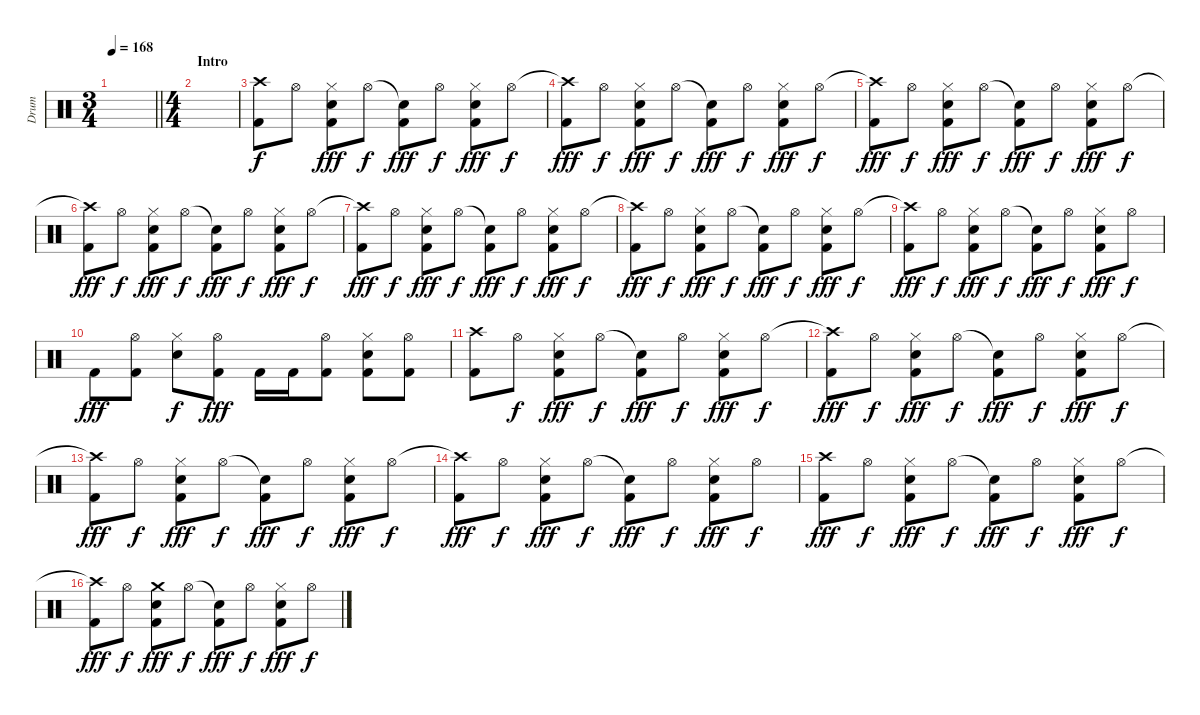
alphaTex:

\track ("Drum" "Drum") {instrument percussion}
\staff {score}
\articulation defaults
\ts (3 4)
\tempo 168
\clef neutral
\barLineRight lightlight
\ks c
|
\ts (4 4)
\section ("" "Intro")
|
("Crash high (hit)" "Kick (hit) 2").8 "Hi-Hat (open)".8{dy f} ("Hi-Hat (closed)" "Snare (hit) 2" "Kick (hit) 2").8{dy fff} "Hi-Hat (open)".8{dy f} ("Snare (hit)"{t} "Kick (hit) 2").8{dy fff} "Hi-Hat (open)".8{dy f} ("Hi-Hat (closed)" "Snare (hit) 2" "Kick (hit) 2").8{dy fff} "Hi-Hat (open)".8{dy f} |
("Crash high (hit)"{t} "Kick (hit) 2").8{dy fff} "Hi-Hat (open)".8{dy f} ("Hi-Hat (closed)" "Snare (hit) 2" "Kick (hit) 2").8{dy fff} "Hi-Hat (open)".8{dy f} ("Snare (hit)"{t} "Kick (hit) 2").8{dy fff} "Hi-Hat (open)".8{dy f} ("Hi-Hat (closed)" "Snare (hit) 2" "Kick (hit) 2").8{dy fff} "Hi-Hat (open)".8{dy f} |
("Crash high (hit)"{t} "Kick (hit) 2").8{dy fff} "Hi-Hat (open)".8{dy f} ("Hi-Hat (closed)" "Snare (hit) 2" "Kick (hit) 2").8{dy fff} "Hi-Hat (open)".8{dy f} ("Snare (hit)"{t} "Kick (hit) 2").8{dy fff} "Hi-Hat (open)".8{dy f} ("Hi-Hat (closed)" "Snare (hit) 2" "Kick (hit) 2").8{dy fff} "Hi-Hat (open)".8{dy f} |
("Crash high (hit)"{t} "Kick (hit) 2").8{dy fff} "Hi-Hat (open)".8{dy f} ("Hi-Hat (closed)" "Snare (hit) 2" "Kick (hit) 2").8{dy fff} "Hi-Hat (open)".8{dy f} ("Snare (hit)"{t} "Kick (hit) 2").8{dy fff} "Hi-Hat (open)".8{dy f} ("Hi-Hat (closed)" "Snare (hit) 2" "Kick (hit) 2").8{dy fff} "Hi-Hat (open)".8{dy f} |
("Crash high (hit)"{t} "Kick (hit) 2").8{dy fff} "Hi-Hat (open)".8{dy f} ("Hi-Hat (closed)" "Snare (hit) 2" "Kick (hit) 2").8{dy fff} "Hi-Hat (open)".8{dy f} ("Snare (hit)"{t} "Kick (hit) 2").8{dy fff} "Hi-Hat (open)".8{dy f} ("Hi-Hat (closed)" "Snare (hit) 2" "Kick (hit) 2").8{dy fff} "Hi-Hat (open)".8{dy f} |
("Crash high (hit)"{t} "Kick (hit) 2").8{dy fff} "Hi-Hat (open)".8{dy f} ("Hi-Hat (closed)" "Snare (hit) 2" "Kick (hit) 2").8{dy fff} "Hi-Hat (open)".8{dy f} ("Snare (hit)"{t} "Kick (hit) 2").8{dy fff} "Hi-Hat (open)".8{dy f} ("Hi-Hat (closed)" "Snare (hit) 2" "Kick (hit) 2").8{dy fff} "Hi-Hat (open)".8{dy f} |
("Crash high (hit)"{t} "Kick (hit) 2").8{dy fff} "Hi-Hat (open)".8{dy f} ("Hi-Hat (closed)" "Snare (hit) 2" "Kick (hit) 2").8{dy fff} "Hi-Hat (open)".8{dy f} ("Snare (hit)"{t} "Kick (hit) 2").8{dy fff} "Hi-Hat (open)".8{dy f} ("Hi-Hat (closed)" "Snare (hit) 2" "Kick (hit) 2").8{dy fff} "Hi-Hat (open)".8{dy f} |
"Kick (hit) 2".8{dy fff} ("Hi-Hat (open)" "Kick (hit) 2").8 ("Hi-Hat (closed)" "Snare (hit) 2").8{dy f} ("Hi-Hat (open)" "Kick (hit) 2").8{dy fff} "Kick (hit) 2".16 "Kick (hit) 2".16 ("Hi-Hat (open)" "Kick (hit) 2").8 ("Hi-Hat (closed)" "Snare (hit) 2" "Kick (hit) 2").8 ("Hi-Hat (open)" "Kick (hit) 2").8 |
("Crash high (hit)" "Kick (hit) 2").8 "Hi-Hat (open)".8{dy f} ("Hi-Hat (closed)" "Snare (hit) 2" "Kick (hit) 2").8{dy fff} "Hi-Hat (open)".8{dy f} ("Snare (hit)"{t} "Kick (hit) 2").8{dy fff} "Hi-Hat (open)".8{dy f} ("Hi-Hat (closed)" "Snare (hit) 2" "Kick (hit) 2").8{dy fff} "Hi-Hat (open)".8{dy f} |
("Crash high (hit)"{t} "Kick (hit) 2").8{dy fff} "Hi-Hat (open)".8{dy f} ("Hi-Hat (closed)" "Snare (hit) 2" "Kick (hit) 2").8{dy fff} "Hi-Hat (open)".8{dy f} ("Snare (hit)"{t} "Kick (hit) 2").8{dy fff} "Hi-Hat (open)".8{dy f} ("Hi-Hat (closed)" "Snare (hit) 2" "Kick (hit) 2").8{dy fff} "Hi-Hat (open)".8{dy f} |
("Crash high (hit)"{t} "Kick (hit) 2").8{dy fff} "Hi-Hat (open)".8{dy f} ("Hi-Hat (closed)" "Snare (hit) 2" "Kick (hit) 2").8{dy fff} "Hi-Hat (open)".8{dy f} ("Snare (hit)"{t} "Kick (hit) 2").8{dy fff} "Hi-Hat (open)".8{dy f} ("Hi-Hat (closed)" "Snare (hit) 2" "Kick (hit) 2").8{dy fff} "Hi-Hat (open)".8{dy f} |
("Crash high (hit)"{t} "Kick (hit) 2").8{dy fff} "Hi-Hat (open)".8{dy f} ("Hi-Hat (closed)" "Snare (hit) 2" "Kick (hit) 2").8{dy fff} "Hi-Hat (open)".8{dy f} ("Snare (hit)"{t} "Kick (hit) 2").8{dy fff} "Hi-Hat (open)".8{dy f} ("Hi-Hat (closed)" "Snare (hit) 2" "Kick (hit) 2").8{dy fff} "Hi-Hat (open)".8{dy f} |
("Crash high (hit)" "Kick (hit) 2").8{dy fff} "Hi-Hat (open)".8{dy f} ("Hi-Hat (closed)" "Snare (hit) 2" "Kick (hit) 2").8{dy fff} "Hi-Hat (open)".8{dy f} ("Snare (hit)"{t} "Kick (hit) 2").8{dy fff} "Hi-Hat (open)".8{dy f} ("Hi-Hat (closed)" "Snare (hit) 2" "Kick (hit) 2").8{dy fff} "Hi-Hat (open)".8{dy f} |
("Crash high (hit)"{t} "Kick (hit) 2").8{dy fff} "Hi-Hat (open)".8{dy f} ("Crash medium (hit)" "Snare (hit) 2" "Kick (hit) 2").8{dy fff} "Hi-Hat (open)".8{dy f} ("Snare (hit)"{t} "Kick (hit) 2").8{dy fff} "Hi-Hat (open)".8{dy f} ("Hi-Hat (closed)" "Snare (hit) 2" "Kick (hit) 2").8{dy fff} "Hi-Hat (open)".8{dy f}
